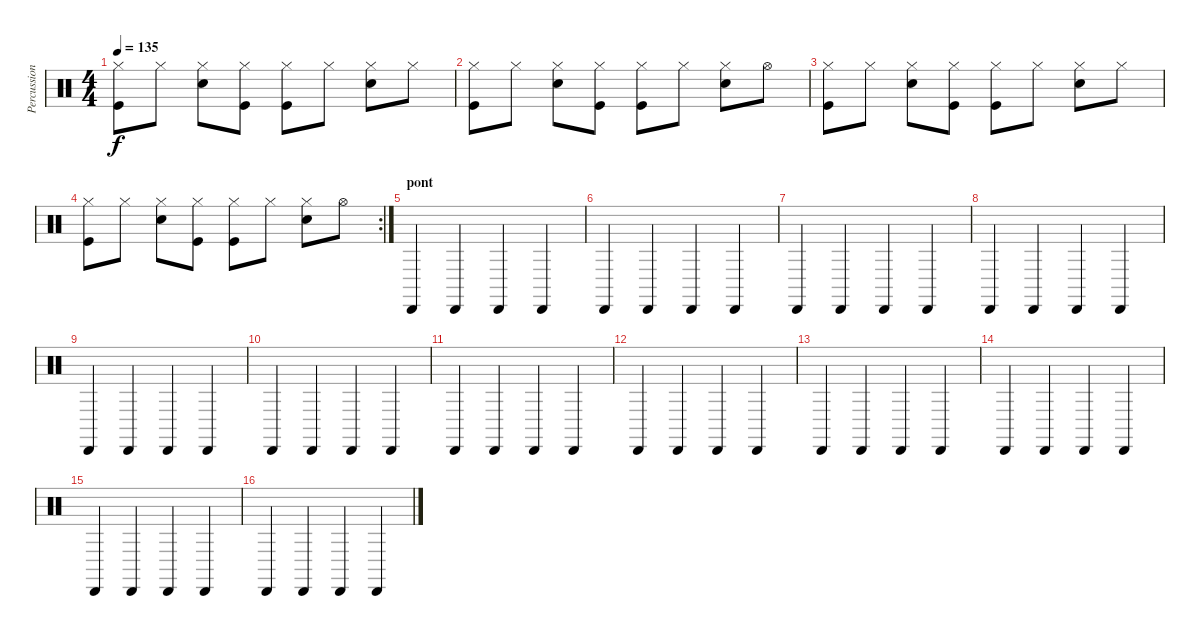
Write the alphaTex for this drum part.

\track ("Percussions" "Percussion") {instrument percussion}
\staff {score}
\articulation defaults
\ts (4 4)
\tempo 135
\clef neutral
\ks c
("Kick (hit)" "Hi-Hat (closed)").8{dy f} "Hi-Hat (closed)".8 ("Snare (hit) 2" "Hi-Hat (closed)").8 ("Kick (hit)" "Hi-Hat (closed)").8 ("Kick (hit)" "Hi-Hat (closed)").8 "Hi-Hat (closed)".8 ("Snare (hit) 2" "Hi-Hat (closed)").8 "Hi-Hat (closed)".8 |
("Kick (hit)" "Hi-Hat (closed)").8 "Hi-Hat (closed)".8 ("Snare (hit) 2" "Hi-Hat (closed)").8 ("Kick (hit)" "Hi-Hat (closed)").8 ("Kick (hit)" "Hi-Hat (closed)").8 "Hi-Hat (closed)".8 ("Snare (hit) 2" "Hi-Hat (closed)").8 "Hi-Hat (open)".8 |
("Kick (hit)" "Hi-Hat (closed)").8 "Hi-Hat (closed)".8 ("Snare (hit) 2" "Hi-Hat (closed)").8 ("Kick (hit)" "Hi-Hat (closed)").8 ("Kick (hit)" "Hi-Hat (closed)").8 "Hi-Hat (closed)".8 ("Snare (hit) 2" "Hi-Hat (closed)").8 "Hi-Hat (closed)".8 |
\rc 2
("Kick (hit)" "Hi-Hat (closed)").8 "Hi-Hat (closed)".8 ("Snare (hit) 2" "Hi-Hat (closed)").8 ("Kick (hit)" "Hi-Hat (closed)").8 ("Kick (hit)" "Hi-Hat (closed)").8 "Hi-Hat (closed)".8 ("Snare (hit) 2" "Hi-Hat (closed)").8 "Hi-Hat (open)".8 |
\section ("" "pont")
"Cabasa (hit)".4 "Cabasa (hit)".4 "Cabasa (hit)".4 "Cabasa (hit)".4 |
"Cabasa (hit)".4 "Cabasa (hit)".4 "Cabasa (hit)".4 "Cabasa (hit)".4 |
"Cabasa (hit)".4 "Cabasa (hit)".4 "Cabasa (hit)".4 "Cabasa (hit)".4 |
"Cabasa (hit)".4 "Cabasa (hit)".4 "Cabasa (hit)".4 "Cabasa (hit)".4 |
"Cabasa (hit)".4 "Cabasa (hit)".4 "Cabasa (hit)".4 "Cabasa (hit)".4 |
"Cabasa (hit)".4 "Cabasa (hit)".4 "Cabasa (hit)".4 "Cabasa (hit)".4 |
"Cabasa (hit)".4 "Cabasa (hit)".4 "Cabasa (hit)".4 "Cabasa (hit)".4 |
"Cabasa (hit)".4 "Cabasa (hit)".4 "Cabasa (hit)".4 "Cabasa (hit)".4 |
"Cabasa (hit)".4 "Cabasa (hit)".4 "Cabasa (hit)".4 "Cabasa (hit)".4 |
"Cabasa (hit)".4 "Cabasa (hit)".4 "Cabasa (hit)".4 "Cabasa (hit)".4 |
"Cabasa (hit)".4 "Cabasa (hit)".4 "Cabasa (hit)".4 "Cabasa (hit)".4 |
"Cabasa (hit)".4 "Cabasa (hit)".4 "Cabasa (hit)".4 "Cabasa (hit)".4
